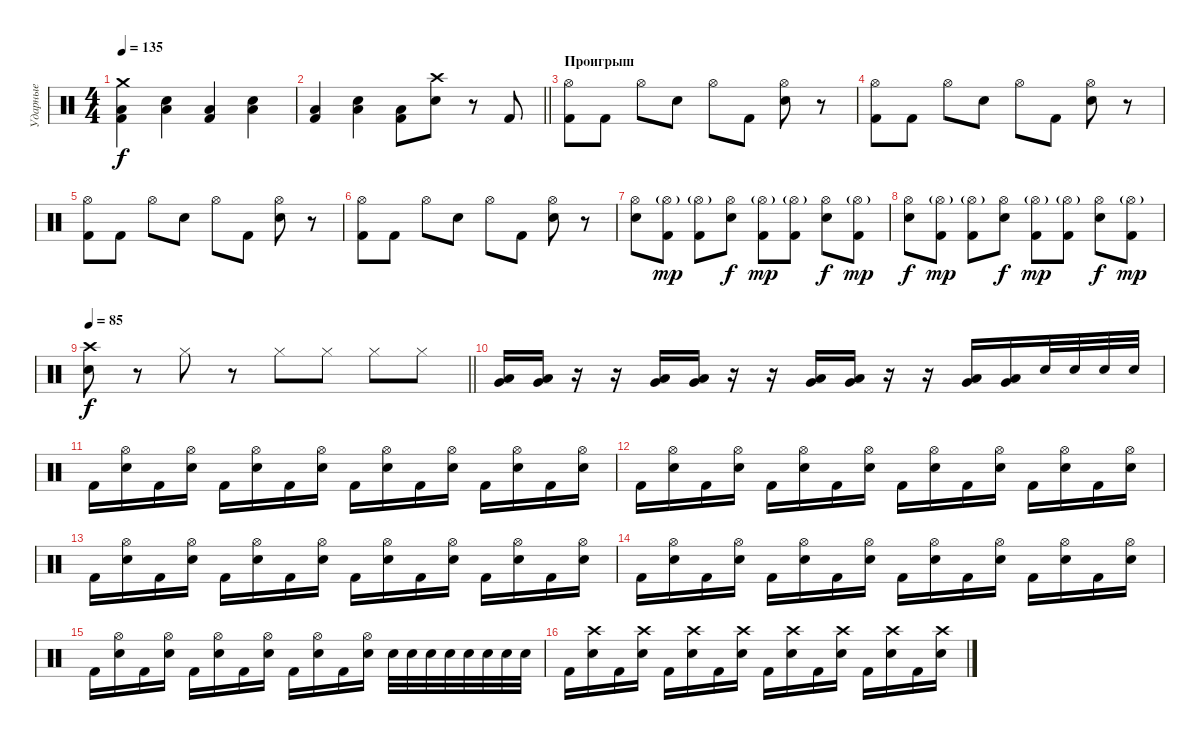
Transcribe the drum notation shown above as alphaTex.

\track ("Ударные" "Ударные") {instrument percussion}
\staff {score}
\articulation defaults
\ts (4 4)
\tempo 135
\clef neutral
\ks c
("Crash medium (hit)" "Low Floor Tom (hit)" "Kick (hit) 2").4{dy f} ("Low Floor Tom (hit)" "Electric Snare (hit)").4 ("Low Floor Tom (hit)" "Kick (hit) 2").4 ("Low Floor Tom (hit)" "Electric Snare (hit)").4 |
\barLineRight lightlight
("Low Floor Tom (hit)" "Kick (hit) 2").4 ("Low Floor Tom (hit)" "Electric Snare (hit)").4 ("Low Floor Tom (hit)" "Kick (hit) 2").8 ("Crash high (hit)" "Electric Snare (hit)").8 r.8 "Kick (hit) 2".8 |
\section ("" "Проигрыш")
("Hi-Hat (open)" "Kick (hit) 2").8 "Kick (hit) 2".8 "Hi-Hat (open)".8 "Electric Snare (hit)".8 "Hi-Hat (open)".8 "Kick (hit) 2".8 ("Hi-Hat (open)" "Electric Snare (hit)").8 r.8 |
("Hi-Hat (open)" "Kick (hit) 2").8 "Kick (hit) 2".8 "Hi-Hat (open)".8 "Electric Snare (hit)".8 "Hi-Hat (open)".8 "Kick (hit) 2".8 ("Hi-Hat (open)" "Electric Snare (hit)").8 r.8 |
("Hi-Hat (open)" "Kick (hit) 2").8 "Kick (hit) 2".8 "Hi-Hat (open)".8 "Electric Snare (hit)".8 "Hi-Hat (open)".8 "Kick (hit) 2".8 ("Hi-Hat (open)" "Electric Snare (hit)").8 r.8 |
("Hi-Hat (open)" "Kick (hit) 2").8 "Kick (hit) 2".8 "Hi-Hat (open)".8 "Electric Snare (hit)".8 "Hi-Hat (open)".8 "Kick (hit) 2".8 ("Hi-Hat (open)" "Electric Snare (hit)").8 r.8 |
("Hi-Hat (open)" "Electric Snare (hit)").8 ("Hi-Hat (open)"{g} "Kick (hit) 2").8{dy mp} ("Hi-Hat (open)"{g} "Kick (hit) 2").8 ("Hi-Hat (open)" "Electric Snare (hit)").8{dy f} ("Hi-Hat (open)"{g} "Kick (hit) 2").8{dy mp} ("Hi-Hat (open)"{g} "Kick (hit) 2").8 ("Hi-Hat (open)" "Electric Snare (hit)").8{dy f} ("Hi-Hat (open)"{g} "Kick (hit) 2").8{dy mp} |
("Hi-Hat (open)" "Electric Snare (hit)").8{dy f} ("Hi-Hat (open)"{g} "Kick (hit) 2").8{dy mp} ("Hi-Hat (open)"{g} "Kick (hit) 2").8 ("Hi-Hat (open)" "Electric Snare (hit)").8{dy f} ("Hi-Hat (open)"{g} "Kick (hit) 2").8{dy mp} ("Hi-Hat (open)"{g} "Kick (hit) 2").8 ("Hi-Hat (open)" "Electric Snare (hit)").8{dy f} ("Hi-Hat (open)"{g} "Kick (hit) 2").8{dy mp} |
\tempo 85
\barLineRight lightlight
("Crash high (hit)" "Electric Snare (hit)").8{dy f} r.8 "Hi-Hat (closed)".8 r.8 "Hi-Hat (closed)".8 "Hi-Hat (closed)".8 "Hi-Hat (closed)".8 "Hi-Hat (closed)".8 |
("Low Floor Tom (hit)" "Very Low Tom (hit)").16 ("Low Floor Tom (hit)" "Very Low Tom (hit)").16 r.16 r.16 ("Low Floor Tom (hit)" "Very Low Tom (hit)").16 ("Low Floor Tom (hit)" "Very Low Tom (hit)").16 r.16 r.16 ("Low Floor Tom (hit)" "Very Low Tom (hit)").16 ("Low Floor Tom (hit)" "Very Low Tom (hit)").16 r.16 r.16 ("Low Floor Tom (hit)" "Very Low Tom (hit)").16 ("Low Floor Tom (hit)" "Very Low Tom (hit)").16 "Electric Snare (hit)".32 "Electric Snare (hit)".32 "Electric Snare (hit)".32 "Electric Snare (hit)".32 |
"Kick (hit) 2".16 ("Hi-Hat (open)" "Electric Snare (hit)").16 "Kick (hit) 2".16 ("Hi-Hat (open)" "Electric Snare (hit)").16 "Kick (hit) 2".16 ("Hi-Hat (open)" "Electric Snare (hit)").16 "Kick (hit) 2".16 ("Hi-Hat (open)" "Electric Snare (hit)").16 "Kick (hit) 2".16 ("Hi-Hat (open)" "Electric Snare (hit)").16 "Kick (hit) 2".16 ("Hi-Hat (open)" "Electric Snare (hit)").16 "Kick (hit) 2".16 ("Hi-Hat (open)" "Electric Snare (hit)").16 "Kick (hit) 2".16 ("Hi-Hat (open)" "Electric Snare (hit)").16 |
"Kick (hit) 2".16 ("Hi-Hat (open)" "Electric Snare (hit)").16 "Kick (hit) 2".16 ("Hi-Hat (open)" "Electric Snare (hit)").16 "Kick (hit) 2".16 ("Hi-Hat (open)" "Electric Snare (hit)").16 "Kick (hit) 2".16 ("Hi-Hat (open)" "Electric Snare (hit)").16 "Kick (hit) 2".16 ("Hi-Hat (open)" "Electric Snare (hit)").16 "Kick (hit) 2".16 ("Hi-Hat (open)" "Electric Snare (hit)").16 "Kick (hit) 2".16 ("Hi-Hat (open)" "Electric Snare (hit)").16 "Kick (hit) 2".16 ("Hi-Hat (open)" "Electric Snare (hit)").16 |
"Kick (hit) 2".16 ("Hi-Hat (open)" "Electric Snare (hit)").16 "Kick (hit) 2".16 ("Hi-Hat (open)" "Electric Snare (hit)").16 "Kick (hit) 2".16 ("Hi-Hat (open)" "Electric Snare (hit)").16 "Kick (hit) 2".16 ("Hi-Hat (open)" "Electric Snare (hit)").16 "Kick (hit) 2".16 ("Hi-Hat (open)" "Electric Snare (hit)").16 "Kick (hit) 2".16 ("Hi-Hat (open)" "Electric Snare (hit)").16 "Kick (hit) 2".16 ("Hi-Hat (open)" "Electric Snare (hit)").16 "Kick (hit) 2".16 ("Hi-Hat (open)" "Electric Snare (hit)").16 |
"Kick (hit) 2".16 ("Hi-Hat (open)" "Electric Snare (hit)").16 "Kick (hit) 2".16 ("Hi-Hat (open)" "Electric Snare (hit)").16 "Kick (hit) 2".16 ("Hi-Hat (open)" "Electric Snare (hit)").16 "Kick (hit) 2".16 ("Hi-Hat (open)" "Electric Snare (hit)").16 "Kick (hit) 2".16 ("Hi-Hat (open)" "Electric Snare (hit)").16 "Kick (hit) 2".16 ("Hi-Hat (open)" "Electric Snare (hit)").16 "Kick (hit) 2".16 ("Hi-Hat (open)" "Electric Snare (hit)").16 "Kick (hit) 2".16 ("Hi-Hat (open)" "Electric Snare (hit)").16 |
"Kick (hit) 2".16 ("Hi-Hat (open)" "Electric Snare (hit)").16 "Kick (hit) 2".16 ("Hi-Hat (open)" "Electric Snare (hit)").16 "Kick (hit) 2".16 ("Hi-Hat (open)" "Electric Snare (hit)").16 "Kick (hit) 2".16 ("Hi-Hat (open)" "Electric Snare (hit)").16 "Kick (hit) 2".16 ("Hi-Hat (open)" "Electric Snare (hit)").16 "Kick (hit) 2".16 ("Hi-Hat (open)" "Electric Snare (hit)").16 "Electric Snare (hit)".32 "Electric Snare (hit)".32 "Electric Snare (hit)".32 "Electric Snare (hit)".32 "Electric Snare (hit)".32 "Electric Snare (hit)".32 "Electric Snare (hit)".32 "Electric Snare (hit)".32 |
"Kick (hit) 2".16 ("Crash high (hit)" "Electric Snare (hit)").16 "Kick (hit) 2".16 ("Crash high (hit)" "Electric Snare (hit)").16 "Kick (hit) 2".16 ("Crash high (hit)" "Electric Snare (hit)").16 "Kick (hit) 2".16 ("Crash high (hit)" "Electric Snare (hit)").16 "Kick (hit) 2".16 ("Crash high (hit)" "Electric Snare (hit)").16 "Kick (hit) 2".16 ("Crash high (hit)" "Electric Snare (hit)").16 "Kick (hit) 2".16 ("Crash high (hit)" "Electric Snare (hit)").16 "Kick (hit) 2".16 ("Crash high (hit)" "Electric Snare (hit)").16
